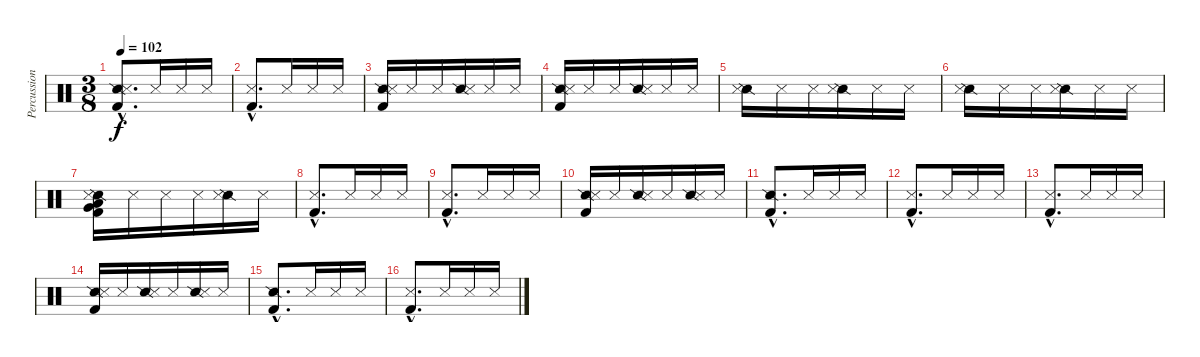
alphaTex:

\track ("Percussions" "Percussion") {instrument percussion}
\staff {score}
\articulation defaults
\ts (3 8)
\tempo 102
\clef neutral
\ks c
("Snare (side stick) 2"{hac} "Snare (side stick) 3"{hac} "Kick (hit) 2"{hac}).8{d dy f} "Snare (side stick) 3".16 "Snare (side stick) 3".16 "Snare (side stick) 3".16 |
("Snare (side stick) 3"{hac} "Kick (hit) 2"{hac}).8{d} "Snare (side stick) 3".16 "Snare (side stick) 3".16 "Snare (side stick) 3".16 |
("Snare (side stick) 2" "Snare (side stick) 3" "Kick (hit) 2").16 "Snare (side stick) 3".16 "Snare (side stick) 3".16 ("Snare (side stick) 2" "Snare (side stick) 3").16 "Snare (side stick) 3".16 "Snare (side stick) 3".16 |
("Snare (side stick) 2" "Snare (side stick) 3" "Kick (hit) 2").16 "Snare (side stick) 3".16 "Snare (side stick) 3".16 ("Snare (side stick) 2" "Snare (side stick) 3").16 "Snare (side stick) 3".16 "Snare (side stick) 3".16 |
("Snare (side stick) 2" "Snare (side stick) 3").16 "Snare (side stick) 3".16 "Snare (side stick) 3".16 ("Snare (side stick) 2" "Snare (side stick) 3").16 "Snare (side stick) 3".16 "Snare (side stick) 3".16 |
("Snare (side stick) 2" "Snare (side stick) 3").16 "Snare (side stick) 3".16 "Snare (side stick) 3".16 ("Snare (side stick) 2" "Snare (side stick) 3").16 "Snare (side stick) 3".16 "Snare (side stick) 3".16 |
("Very Low Tom (hit)" "Low Floor Tom (hit)" "Snare (side stick) 2" "Snare (side stick) 3" "Kick (hit) 2").16 "Snare (side stick) 3".16 "Snare (side stick) 3".16 "Snare (side stick) 3".16 ("Snare (side stick) 2" "Snare (side stick) 3").16 "Snare (side stick) 3".16 |
("Snare (side stick) 3"{hac} "Kick (hit) 2"{hac}).8{d} "Snare (side stick) 3".16 "Snare (side stick) 3".16 "Snare (side stick) 3".16 |
("Snare (side stick) 3"{hac} "Kick (hit) 2"{hac}).8{d} "Snare (side stick) 3".16 "Snare (side stick) 3".16 "Snare (side stick) 3".16 |
("Snare (side stick) 2" "Snare (side stick) 3" "Kick (hit) 2").16 "Snare (side stick) 3".16 ("Snare (side stick) 2" "Snare (side stick) 3").16 "Snare (side stick) 3".16 ("Snare (side stick) 2" "Snare (side stick) 3").16 "Snare (side stick) 3".16 |
("Snare (side stick) 2"{hac} "Kick (hit) 2"{hac}).8{d} "Snare (side stick) 3".16 "Snare (side stick) 3".16 "Snare (side stick) 3".16 |
("Snare (side stick) 3"{hac} "Kick (hit) 2"{hac}).8{d} "Snare (side stick) 3".16 "Snare (side stick) 3".16 "Snare (side stick) 3".16 |
("Snare (side stick) 3"{hac} "Kick (hit) 2"{hac}).8{d} "Snare (side stick) 3".16 "Snare (side stick) 3".16 "Snare (side stick) 3".16 |
("Snare (side stick) 2" "Snare (side stick) 3" "Kick (hit) 2").16 "Snare (side stick) 3".16 ("Snare (side stick) 2" "Snare (side stick) 3").16 "Snare (side stick) 3".16 ("Snare (side stick) 2" "Snare (side stick) 3").16 "Snare (side stick) 3".16 |
("Snare (side stick) 2"{hac} "Kick (hit) 2"{hac}).8{d} "Snare (side stick) 3".16 "Snare (side stick) 3".16 "Snare (side stick) 3".16 |
("Snare (side stick) 3"{hac} "Kick (hit) 2"{hac}).8{d} "Snare (side stick) 3".16 "Snare (side stick) 3".16 "Snare (side stick) 3".16
